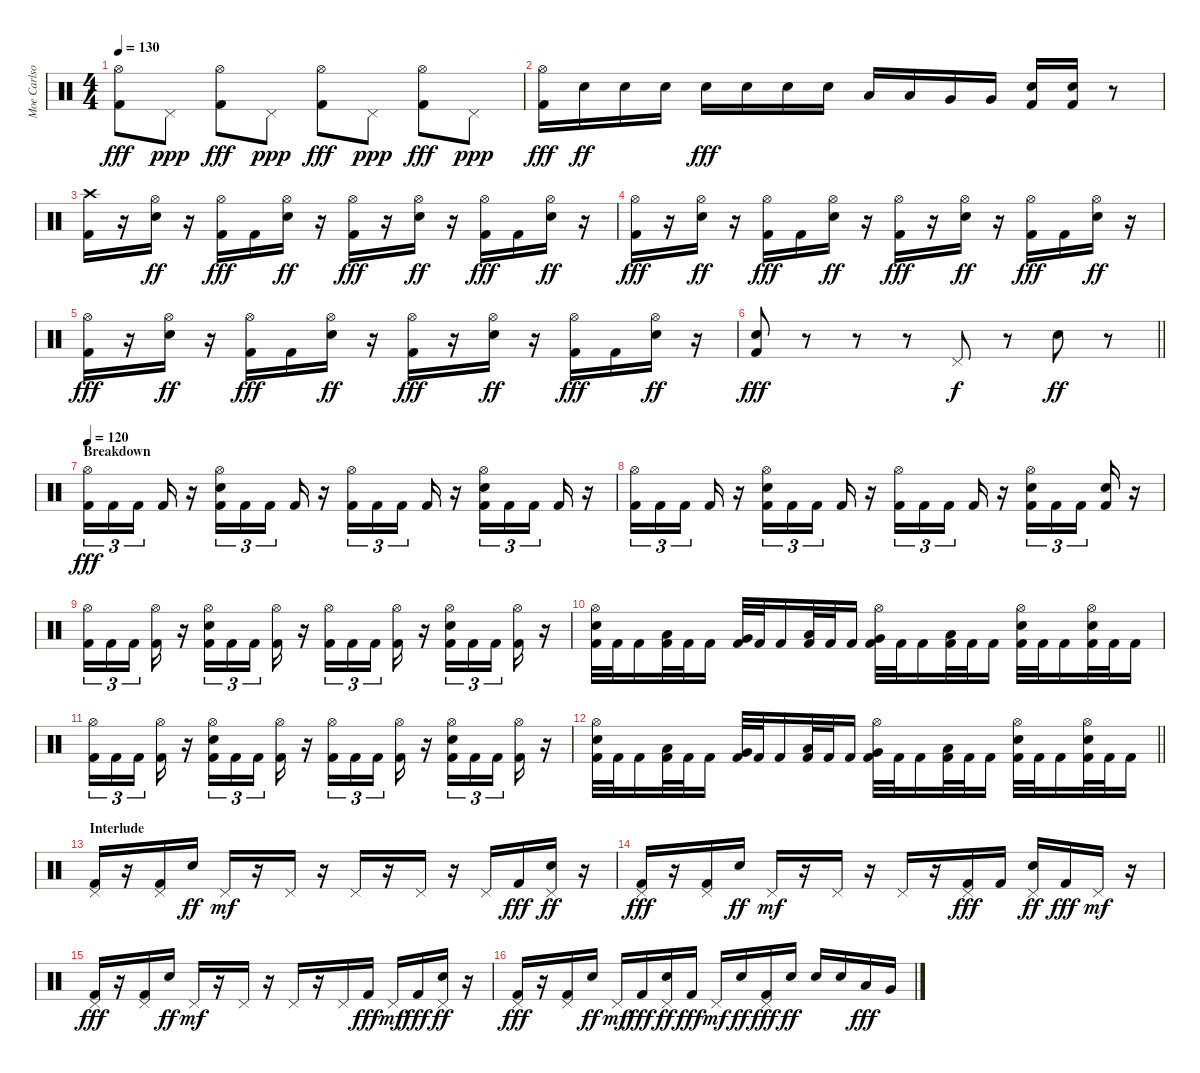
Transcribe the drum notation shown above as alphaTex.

\track ("Moe Carlson" "Moe Carlso") {instrument percussion}
\staff {score}
\articulation defaults
\ts (4 4)
\tempo 130
\clef neutral
\ks c
("Hi-Hat (open)" "Kick (hit) 2").8{dy fff} "Pedal Hi-Hat (hit)".8{dy ppp} ("Hi-Hat (open)" "Kick (hit) 2").8{dy fff} "Pedal Hi-Hat (hit)".8{dy ppp} ("Hi-Hat (open)" "Kick (hit) 2").8{dy fff} "Pedal Hi-Hat (hit)".8{dy ppp} ("Hi-Hat (open)" "Kick (hit) 2").8{dy fff} "Pedal Hi-Hat (hit)".8{dy ppp} |
("Hi-Hat (open)" "Kick (hit) 2").16{dy fff} "Electric Snare (hit)".16{dy ff} "Electric Snare (hit)".16 "Electric Snare (hit)".16 "Electric Snare (hit)".16{dy fff} "Electric Snare (hit)".16 "Electric Snare (hit)".16 "Electric Snare (hit)".16 "Low Tom (hit)".16 "Low Tom (hit)".16 "Very Low Tom (hit)".16 "Very Low Tom (hit)".16 ("Electric Snare (hit)" "Kick (hit) 2").16 ("Electric Snare (hit)" "Kick (hit) 2").16 r.8 |
("Crash high (hit)" "Kick (hit) 2").16 r.16 ("Hi-Hat (open)" "Electric Snare (hit)").16{dy ff} r.16 ("Hi-Hat (open)" "Kick (hit) 2").16{dy fff} "Kick (hit) 2".16 ("Hi-Hat (open)" "Electric Snare (hit)").16{dy ff} r.16 ("Hi-Hat (open)" "Kick (hit) 2").16{dy fff} r.16 ("Hi-Hat (open)" "Electric Snare (hit)").16{dy ff} r.16 ("Hi-Hat (open)" "Kick (hit) 2").16{dy fff} "Kick (hit) 2".16 ("Hi-Hat (open)" "Electric Snare (hit)").16{dy ff} r.16 |
("Hi-Hat (open)" "Kick (hit) 2").16{dy fff} r.16 ("Hi-Hat (open)" "Electric Snare (hit)").16{dy ff} r.16 ("Hi-Hat (open)" "Kick (hit) 2").16{dy fff} "Kick (hit) 2".16 ("Hi-Hat (open)" "Electric Snare (hit)").16{dy ff} r.16 ("Hi-Hat (open)" "Kick (hit) 2").16{dy fff} r.16 ("Hi-Hat (open)" "Electric Snare (hit)").16{dy ff} r.16 ("Hi-Hat (open)" "Kick (hit) 2").16{dy fff} "Kick (hit) 2".16 ("Hi-Hat (open)" "Electric Snare (hit)").16{dy ff} r.16 |
("Hi-Hat (open)" "Kick (hit) 2").16{dy fff} r.16 ("Hi-Hat (open)" "Electric Snare (hit)").16{dy ff} r.16 ("Hi-Hat (open)" "Kick (hit) 2").16{dy fff} "Kick (hit) 2".16 ("Hi-Hat (open)" "Electric Snare (hit)").16{dy ff} r.16 ("Hi-Hat (open)" "Kick (hit) 2").16{dy fff} r.16 ("Hi-Hat (open)" "Electric Snare (hit)").16{dy ff} r.16 ("Hi-Hat (open)" "Kick (hit) 2").16{dy fff} "Kick (hit) 2".16 ("Hi-Hat (open)" "Electric Snare (hit)").16{dy ff} r.16 |
\barLineRight lightlight
("Electric Snare (hit)" "Kick (hit) 2").8{dy fff} r.8 r.8 r.8 "Pedal Hi-Hat (hit)".8{dy f} r.8 "Electric Snare (hit)".8{dy ff} r.8 |
\section ("" "Breakdown")
\tempo 120
("Hi-Hat (open)" "Kick (hit) 2").16{tu (3 2) dy fff} "Kick (hit) 2".16{tu (3 2)} "Kick (hit) 2".16{tu (3 2) beam splitsecondary} "Kick (hit) 2".16 r.16 ("Hi-Hat (open)" "Electric Snare (hit)" "Kick (hit) 2").16{tu (3 2)} "Kick (hit) 2".16{tu (3 2)} "Kick (hit) 2".16{tu (3 2) beam splitsecondary} "Kick (hit) 2".16 r.16 ("Hi-Hat (open)" "Kick (hit) 2").16{tu (3 2)} "Kick (hit) 2".16{tu (3 2)} "Kick (hit) 2".16{tu (3 2) beam splitsecondary} "Kick (hit) 2".16 r.16 ("Hi-Hat (open)" "Electric Snare (hit)" "Kick (hit) 2").16{tu (3 2)} "Kick (hit) 2".16{tu (3 2)} "Kick (hit) 2".16{tu (3 2) beam splitsecondary} "Kick (hit) 2".16 r.16 |
("Hi-Hat (open)" "Kick (hit) 2").16{tu (3 2)} "Kick (hit) 2".16{tu (3 2)} "Kick (hit) 2".16{tu (3 2) beam splitsecondary} "Kick (hit) 2".16 r.16 ("Hi-Hat (open)" "Electric Snare (hit)" "Kick (hit) 2").16{tu (3 2)} "Kick (hit) 2".16{tu (3 2)} "Kick (hit) 2".16{tu (3 2) beam splitsecondary} "Kick (hit) 2".16 r.16 ("Hi-Hat (open)" "Kick (hit) 2").16{tu (3 2)} "Kick (hit) 2".16{tu (3 2)} "Kick (hit) 2".16{tu (3 2) beam splitsecondary} "Kick (hit) 2".16 r.16 ("Hi-Hat (open)" "Electric Snare (hit)" "Kick (hit) 2").16{tu (3 2)} "Kick (hit) 2".16{tu (3 2)} "Kick (hit) 2".16{tu (3 2) beam splitsecondary} ("Electric Snare (hit)" "Kick (hit) 2").16 r.16 |
("Hi-Hat (open)" "Kick (hit) 2").16{tu (3 2)} "Kick (hit) 2".16{tu (3 2)} "Kick (hit) 2".16{tu (3 2) beam splitsecondary} ("Hi-Hat (open)" "Kick (hit) 2").16 r.16 ("Hi-Hat (open)" "Electric Snare (hit)" "Kick (hit) 2").16{tu (3 2)} "Kick (hit) 2".16{tu (3 2)} "Kick (hit) 2".16{tu (3 2) beam splitsecondary} ("Hi-Hat (open)" "Kick (hit) 2").16 r.16 ("Hi-Hat (open)" "Kick (hit) 2").16{tu (3 2)} "Kick (hit) 2".16{tu (3 2)} "Kick (hit) 2".16{tu (3 2) beam splitsecondary} ("Hi-Hat (open)" "Kick (hit) 2").16 r.16 ("Hi-Hat (open)" "Electric Snare (hit)" "Kick (hit) 2").16{tu (3 2)} "Kick (hit) 2".16{tu (3 2)} "Kick (hit) 2".16{tu (3 2) beam splitsecondary} ("Hi-Hat (open)" "Kick (hit) 2").16 r.16 |
("Hi-Hat (open)" "Electric Snare (hit)" "Kick (hit) 2").32 "Kick (hit) 2".32 "Kick (hit) 2".16 ("Low Tom (hit)" "Kick (hit) 2").32 "Kick (hit) 2".32 "Kick (hit) 2".16 ("Very Low Tom (hit)" "Kick (hit) 2").32 "Kick (hit) 2".32 "Kick (hit) 2".16 ("Low Floor Tom (hit)" "Kick (hit) 2").32 "Kick (hit) 2".32 "Kick (hit) 2".16 ("Hi-Hat (open)" "Very Low Tom (hit)" "Kick (hit) 2").32 "Kick (hit) 2".32 "Kick (hit) 2".16 ("Low Tom (hit)" "Kick (hit) 2").32 "Kick (hit) 2".32 "Kick (hit) 2".16 ("Hi-Hat (open)" "Electric Snare (hit)" "Kick (hit) 2").32 "Kick (hit) 2".32 "Kick (hit) 2".16 ("Hi-Hat (open)" "Electric Snare (hit)" "Kick (hit) 2").32 "Kick (hit) 2".32 "Kick (hit) 2".16 |
("Hi-Hat (open)" "Kick (hit) 2").16{tu (3 2)} "Kick (hit) 2".16{tu (3 2)} "Kick (hit) 2".16{tu (3 2) beam splitsecondary} ("Hi-Hat (open)" "Kick (hit) 2").16 r.16 ("Hi-Hat (open)" "Electric Snare (hit)" "Kick (hit) 2").16{tu (3 2)} "Kick (hit) 2".16{tu (3 2)} "Kick (hit) 2".16{tu (3 2) beam splitsecondary} ("Hi-Hat (open)" "Kick (hit) 2").16 r.16 ("Hi-Hat (open)" "Kick (hit) 2").16{tu (3 2)} "Kick (hit) 2".16{tu (3 2)} "Kick (hit) 2".16{tu (3 2) beam splitsecondary} ("Hi-Hat (open)" "Kick (hit) 2").16 r.16 ("Hi-Hat (open)" "Electric Snare (hit)" "Kick (hit) 2").16{tu (3 2)} "Kick (hit) 2".16{tu (3 2)} "Kick (hit) 2".16{tu (3 2) beam splitsecondary} ("Hi-Hat (open)" "Kick (hit) 2").16 r.16 |
\barLineRight lightlight
("Hi-Hat (open)" "Electric Snare (hit)" "Kick (hit) 2").32 "Kick (hit) 2".32 "Kick (hit) 2".16 ("Low Tom (hit)" "Kick (hit) 2").32 "Kick (hit) 2".32 "Kick (hit) 2".16 ("Very Low Tom (hit)" "Kick (hit) 2").32 "Kick (hit) 2".32 "Kick (hit) 2".16 ("Low Floor Tom (hit)" "Kick (hit) 2").32 "Kick (hit) 2".32 "Kick (hit) 2".16 ("Hi-Hat (open)" "Very Low Tom (hit)" "Kick (hit) 2").32 "Kick (hit) 2".32 "Kick (hit) 2".16 ("Low Tom (hit)" "Kick (hit) 2").32 "Kick (hit) 2".32 "Kick (hit) 2".16 ("Hi-Hat (open)" "Electric Snare (hit)" "Kick (hit) 2").32 "Kick (hit) 2".32 "Kick (hit) 2".16 ("Hi-Hat (open)" "Electric Snare (hit)" "Kick (hit) 2").32 "Kick (hit) 2".32 "Kick (hit) 2".16 |
\section ("" "Interlude")
("Pedal Hi-Hat (hit)" "Kick (hit) 2").16 r.16 ("Pedal Hi-Hat (hit)" "Kick (hit) 2").16 "Electric Snare (hit)".16{dy ff} "Pedal Hi-Hat (hit)".16{dy mf} r.16 "Pedal Hi-Hat (hit)".16 r.16 "Pedal Hi-Hat (hit)".16 r.16 "Pedal Hi-Hat (hit)".16 r.16 "Pedal Hi-Hat (hit)".16 "Kick (hit) 2".16{dy fff} ("Pedal Hi-Hat (hit)" "Electric Snare (hit)").16{dy ff} r.16 |
("Pedal Hi-Hat (hit)" "Kick (hit) 2").16{dy fff} r.16 ("Pedal Hi-Hat (hit)" "Kick (hit) 2").16 "Electric Snare (hit)".16{dy ff} "Pedal Hi-Hat (hit)".16{dy mf} r.16 "Pedal Hi-Hat (hit)".16 r.16 "Pedal Hi-Hat (hit)".16 r.16 ("Pedal Hi-Hat (hit)" "Kick (hit) 2").16{dy fff} "Kick (hit) 2".16 ("Pedal Hi-Hat (hit)" "Electric Snare (hit)").16{dy ff} "Kick (hit) 2".16{dy fff} "Pedal Hi-Hat (hit)".16{dy mf} r.16 |
("Pedal Hi-Hat (hit)" "Kick (hit) 2").16{dy fff} r.16 ("Pedal Hi-Hat (hit)" "Kick (hit) 2").16 "Electric Snare (hit)".16{dy ff} "Pedal Hi-Hat (hit)".16{dy mf} r.16 "Pedal Hi-Hat (hit)".16 r.16 "Pedal Hi-Hat (hit)".16 r.16 "Pedal Hi-Hat (hit)".16 "Kick (hit) 2".16{dy fff} "Pedal Hi-Hat (hit)".16{dy mf} "Kick (hit) 2".16{dy fff} ("Pedal Hi-Hat (hit)" "Electric Snare (hit)").16{dy ff} r.16 |
("Pedal Hi-Hat (hit)" "Kick (hit) 2").16{dy fff} r.16 ("Pedal Hi-Hat (hit)" "Kick (hit) 2").16 "Electric Snare (hit)".16{dy ff} "Pedal Hi-Hat (hit)".16{dy mf} "Kick (hit) 2".16{dy fff} ("Pedal Hi-Hat (hit)" "Electric Snare (hit)").16{dy ff} "Kick (hit) 2".16{dy fff} "Pedal Hi-Hat (hit)".16{dy mf} "Electric Snare (hit)".16{dy ff} ("Pedal Hi-Hat (hit)" "Kick (hit) 2").16{dy fff} "Electric Snare (hit)".16{dy ff} "Electric Snare (hit)".16 "Electric Snare (hit)".16 "Low Tom (hit)".16{dy fff} "Very Low Tom (hit)".16
